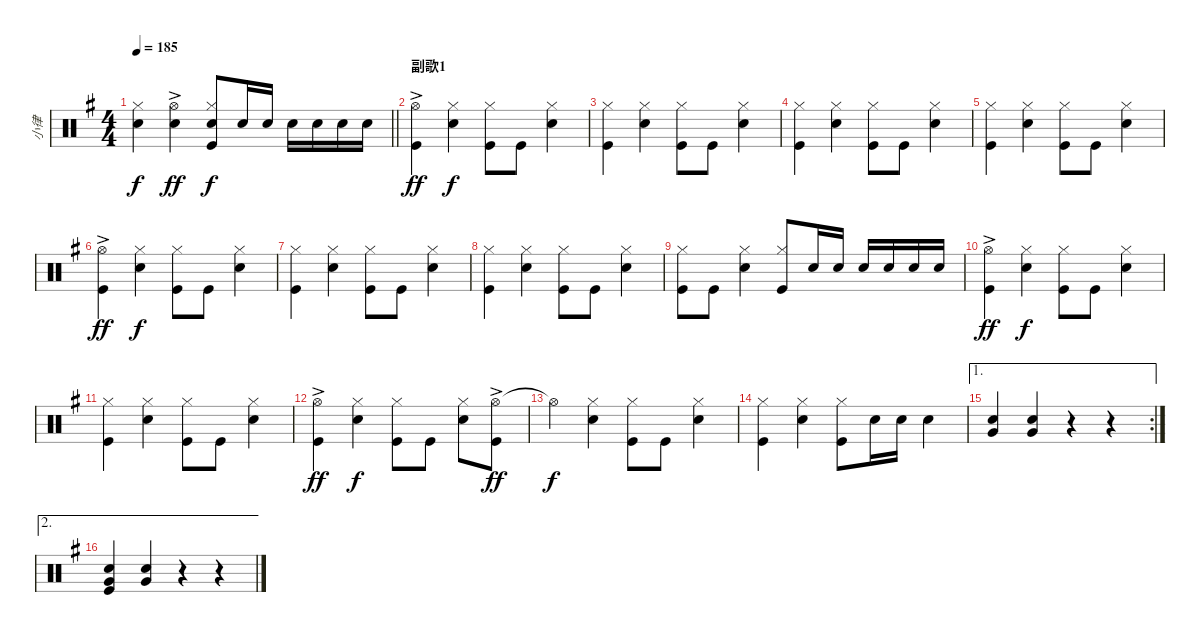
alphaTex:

\track ("小律" "小律") {instrument percussion}
\staff {score}
\articulation defaults
\ts (4 4)
\tempo 185
\clef neutral
\barLineRight lightlight
\ks g
("Snare (hit) 2" "Hi-Hat (closed)").4{dy f} ("Snare (hit) 2" "Hi-Hat (open)"{ac}).4{dy ff} ("Hi-Hat (closed)" "Snare (hit) 2" "Kick (hit)").8{dy f} "Snare (hit) 2".16 "Snare (hit) 2".16 "Snare (hit) 2".16 "Snare (hit) 2".16 "Snare (hit) 2".16 "Snare (hit) 2".16 |
\section ("" "副歌1")
("Hi-Hat (open)"{ac} "Kick (hit)").4{dy ff} ("Hi-Hat (closed)" "Snare (hit) 2").4{dy f} ("Hi-Hat (closed)" "Kick (hit)").8 "Kick (hit)".8 ("Hi-Hat (closed)" "Snare (hit) 2").4 |
("Hi-Hat (closed)" "Kick (hit)").4 ("Hi-Hat (closed)" "Snare (hit) 2").4 ("Hi-Hat (closed)" "Kick (hit)").8 "Kick (hit)".8 ("Hi-Hat (closed)" "Snare (hit) 2").4 |
("Hi-Hat (closed)" "Kick (hit)").4 ("Hi-Hat (closed)" "Snare (hit) 2").4 ("Hi-Hat (closed)" "Kick (hit)").8 "Kick (hit)".8 ("Hi-Hat (closed)" "Snare (hit) 2").4 |
("Hi-Hat (closed)" "Kick (hit)").4 ("Hi-Hat (closed)" "Snare (hit) 2").4 ("Hi-Hat (closed)" "Kick (hit)").8 "Kick (hit)".8 ("Hi-Hat (closed)" "Snare (hit) 2").4 |
("Hi-Hat (open)"{ac} "Kick (hit)").4{dy ff} ("Hi-Hat (closed)" "Snare (hit) 2").4{dy f} ("Hi-Hat (closed)" "Kick (hit)").8 "Kick (hit)".8 ("Hi-Hat (closed)" "Snare (hit) 2").4 |
("Hi-Hat (closed)" "Kick (hit)").4 ("Hi-Hat (closed)" "Snare (hit) 2").4 ("Hi-Hat (closed)" "Kick (hit)").8 "Kick (hit)".8 ("Hi-Hat (closed)" "Snare (hit) 2").4 |
("Hi-Hat (closed)" "Kick (hit)").4 ("Hi-Hat (closed)" "Snare (hit) 2").4 ("Hi-Hat (closed)" "Kick (hit)").8 "Kick (hit)".8 ("Hi-Hat (closed)" "Snare (hit) 2").4 |
("Hi-Hat (closed)" "Kick (hit)").8 "Kick (hit)".8 ("Hi-Hat (closed)" "Snare (hit) 2").4 ("Hi-Hat (closed)" "Kick (hit)").8{beam Up} "Snare (hit) 2".16{beam Up} "Snare (hit) 2".16{beam Up} "Snare (hit) 2".16{beam Up} "Snare (hit) 2".16{beam Up} "Snare (hit) 2".16{beam Up} "Snare (hit) 2".16{beam Up} |
("Hi-Hat (open)"{ac} "Kick (hit)").4{dy ff} ("Snare (hit) 2" "Hi-Hat (closed)").4{dy f} ("Hi-Hat (closed)" "Kick (hit)").8 "Kick (hit)".8 ("Hi-Hat (closed)" "Snare (hit) 2").4 |
("Hi-Hat (closed)" "Kick (hit)").4 ("Hi-Hat (closed)" "Snare (hit) 2").4 ("Hi-Hat (closed)" "Kick (hit)").8 "Kick (hit)".8 ("Hi-Hat (closed)" "Snare (hit) 2").4 |
("Hi-Hat (open)"{ac} "Kick (hit)").4{dy ff} ("Hi-Hat (closed)" "Snare (hit) 2").4{dy f} ("Hi-Hat (closed)" "Kick (hit)").8 "Kick (hit)".8 ("Hi-Hat (closed)" "Snare (hit) 2").8 ("Hi-Hat (open)"{ac} "Kick (hit)").8{dy ff} |
"Hi-Hat (open)"{t}.4{dy f} ("Hi-Hat (closed)" "Snare (hit) 2").4 ("Hi-Hat (closed)" "Kick (hit)").8 "Kick (hit)".8 ("Hi-Hat (closed)" "Snare (hit) 2").4 |
("Hi-Hat (closed)" "Kick (hit)").4 ("Hi-Hat (closed)" "Snare (hit) 2").4 ("Hi-Hat (closed)" "Kick (hit)").8 "Snare (hit) 2".16 "Snare (hit) 2".16 "Snare (hit) 2".4 |
\ae 1
\rc 2
("Very Low Tom (hit)" "Snare (hit) 2").4 ("Very Low Tom (hit)" "Snare (hit) 2").4 r.4 r.4 |
\ae 2
("Very Low Tom (hit)" "Kick (hit)" "Snare (hit) 2").4 ("Very Low Tom (hit)" "Snare (hit) 2").4 r.4 r.4
